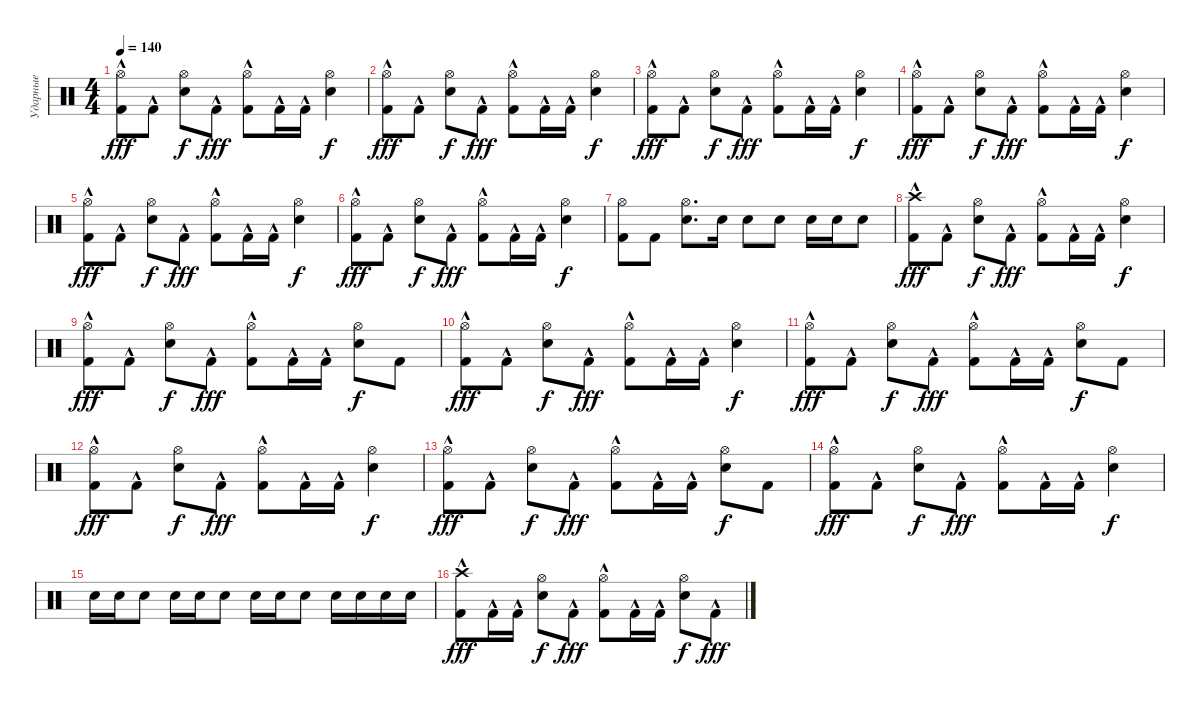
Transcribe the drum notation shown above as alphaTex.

\track ("Ударные" "Ударные") {instrument percussion}
\staff {score}
\articulation defaults
\ts (4 4)
\tempo 140
\clef neutral
\ks c
("Kick (hit) 2"{hac} "Hi-Hat (open)").8{dy fff} "Kick (hit) 2"{hac}.8 ("Snare (hit) 2" "Hi-Hat (open)").8{dy f} "Kick (hit) 2"{hac}.8{dy fff} ("Kick (hit) 2"{hac} "Hi-Hat (open)").8 "Kick (hit) 2"{hac}.16 "Kick (hit) 2"{hac}.16 ("Snare (hit) 2" "Hi-Hat (open)").4{dy f} |
("Kick (hit) 2"{hac} "Hi-Hat (open)").8{dy fff} "Kick (hit) 2"{hac}.8 ("Snare (hit) 2" "Hi-Hat (open)").8{dy f} "Kick (hit) 2"{hac}.8{dy fff} ("Kick (hit) 2"{hac} "Hi-Hat (open)").8 "Kick (hit) 2"{hac}.16 "Kick (hit) 2"{hac}.16 ("Snare (hit) 2" "Hi-Hat (open)").4{dy f} |
("Kick (hit) 2"{hac} "Hi-Hat (open)").8{dy fff} "Kick (hit) 2"{hac}.8 ("Snare (hit) 2" "Hi-Hat (open)").8{dy f} "Kick (hit) 2"{hac}.8{dy fff} ("Kick (hit) 2"{hac} "Hi-Hat (open)").8 "Kick (hit) 2"{hac}.16 "Kick (hit) 2"{hac}.16 ("Snare (hit) 2" "Hi-Hat (open)").4{dy f} |
("Kick (hit) 2"{hac} "Hi-Hat (open)").8{dy fff} "Kick (hit) 2"{hac}.8 ("Snare (hit) 2" "Hi-Hat (open)").8{dy f} "Kick (hit) 2"{hac}.8{dy fff} ("Kick (hit) 2"{hac} "Hi-Hat (open)").8 "Kick (hit) 2"{hac}.16 "Kick (hit) 2"{hac}.16 ("Snare (hit) 2" "Hi-Hat (open)").4{dy f} |
("Kick (hit) 2"{hac} "Hi-Hat (open)").8{dy fff} "Kick (hit) 2"{hac}.8 ("Snare (hit) 2" "Hi-Hat (open)").8{dy f} "Kick (hit) 2"{hac}.8{dy fff} ("Kick (hit) 2"{hac} "Hi-Hat (open)").8 "Kick (hit) 2"{hac}.16 "Kick (hit) 2"{hac}.16 ("Snare (hit) 2" "Hi-Hat (open)").4{dy f} |
("Kick (hit) 2"{hac} "Hi-Hat (open)").8{dy fff} "Kick (hit) 2"{hac}.8 ("Snare (hit) 2" "Hi-Hat (open)").8{dy f} "Kick (hit) 2"{hac}.8{dy fff} ("Kick (hit) 2"{hac} "Hi-Hat (open)").8 "Kick (hit) 2"{hac}.16 "Kick (hit) 2"{hac}.16 ("Snare (hit) 2" "Hi-Hat (open)").4{dy f} |
("Kick (hit) 2" "Hi-Hat (open)").8 "Kick (hit) 2".8 ("Snare (hit) 2" "Hi-Hat (open)").8{d} "Snare (hit) 2".16 "Snare (hit) 2".8 "Snare (hit) 2".8 "Snare (hit) 2".16 "Snare (hit) 2".16 "Snare (hit) 2".8 |
("Kick (hit) 2"{hac} "Crash high (hit)"{hac}).8{dy fff} "Kick (hit) 2"{hac}.8 ("Snare (hit) 2" "Hi-Hat (open)").8{dy f} "Kick (hit) 2"{hac}.8{dy fff} ("Kick (hit) 2"{hac} "Hi-Hat (open)").8 "Kick (hit) 2"{hac}.16 "Kick (hit) 2"{hac}.16 ("Snare (hit) 2" "Hi-Hat (open)").4{dy f} |
("Kick (hit) 2"{hac} "Hi-Hat (open)").8{dy fff} "Kick (hit) 2"{hac}.8 ("Snare (hit) 2" "Hi-Hat (open)").8{dy f} "Kick (hit) 2"{hac}.8{dy fff} ("Kick (hit) 2"{hac} "Hi-Hat (open)").8 "Kick (hit) 2"{hac}.16 "Kick (hit) 2"{hac}.16 ("Snare (hit) 2" "Hi-Hat (open)").8{dy f} "Kick (hit) 2".8 |
("Kick (hit) 2"{hac} "Hi-Hat (open)").8{dy fff} "Kick (hit) 2"{hac}.8 ("Snare (hit) 2" "Hi-Hat (open)").8{dy f} "Kick (hit) 2"{hac}.8{dy fff} ("Kick (hit) 2"{hac} "Hi-Hat (open)").8 "Kick (hit) 2"{hac}.16 "Kick (hit) 2"{hac}.16 ("Snare (hit) 2" "Hi-Hat (open)").4{dy f} |
("Kick (hit) 2"{hac} "Hi-Hat (open)").8{dy fff} "Kick (hit) 2"{hac}.8 ("Snare (hit) 2" "Hi-Hat (open)").8{dy f} "Kick (hit) 2"{hac}.8{dy fff} ("Kick (hit) 2"{hac} "Hi-Hat (open)").8 "Kick (hit) 2"{hac}.16 "Kick (hit) 2"{hac}.16 ("Snare (hit) 2" "Hi-Hat (open)").8{dy f} "Kick (hit) 2".8 |
("Kick (hit) 2"{hac} "Hi-Hat (open)").8{dy fff} "Kick (hit) 2"{hac}.8 ("Snare (hit) 2" "Hi-Hat (open)").8{dy f} "Kick (hit) 2"{hac}.8{dy fff} ("Kick (hit) 2"{hac} "Hi-Hat (open)").8 "Kick (hit) 2"{hac}.16 "Kick (hit) 2"{hac}.16 ("Snare (hit) 2" "Hi-Hat (open)").4{dy f} |
("Kick (hit) 2"{hac} "Hi-Hat (open)").8{dy fff} "Kick (hit) 2"{hac}.8 ("Snare (hit) 2" "Hi-Hat (open)").8{dy f} "Kick (hit) 2"{hac}.8{dy fff} ("Kick (hit) 2"{hac} "Hi-Hat (open)").8 "Kick (hit) 2"{hac}.16 "Kick (hit) 2"{hac}.16 ("Snare (hit) 2" "Hi-Hat (open)").8{dy f} "Kick (hit) 2".8 |
("Kick (hit) 2"{hac} "Hi-Hat (open)").8{dy fff} "Kick (hit) 2"{hac}.8 ("Snare (hit) 2" "Hi-Hat (open)").8{dy f} "Kick (hit) 2"{hac}.8{dy fff} ("Kick (hit) 2"{hac} "Hi-Hat (open)").8 "Kick (hit) 2"{hac}.16 "Kick (hit) 2"{hac}.16 ("Snare (hit) 2" "Hi-Hat (open)").4{dy f} |
"Snare (hit) 2".16 "Snare (hit) 2".16 "Snare (hit) 2".8 "Snare (hit) 2".16 "Snare (hit) 2".16 "Snare (hit) 2".8 "Snare (hit) 2".16 "Snare (hit) 2".16 "Snare (hit) 2".8 "Snare (hit) 2".16 "Snare (hit) 2".16 "Snare (hit) 2".16 "Snare (hit) 2".16 |
("Kick (hit) 2"{hac} "Crash high (hit)"{hac}).8{dy fff} "Kick (hit) 2"{hac}.16 "Kick (hit) 2"{hac}.16 ("Snare (hit) 2" "Hi-Hat (open)").8{dy f} "Kick (hit) 2"{hac}.8{dy fff} ("Kick (hit) 2"{hac} "Hi-Hat (open)").8 "Kick (hit) 2"{hac}.16 "Kick (hit) 2"{hac}.16 ("Snare (hit) 2" "Hi-Hat (open)").8{dy f} "Kick (hit) 2"{hac}.8{dy fff}
